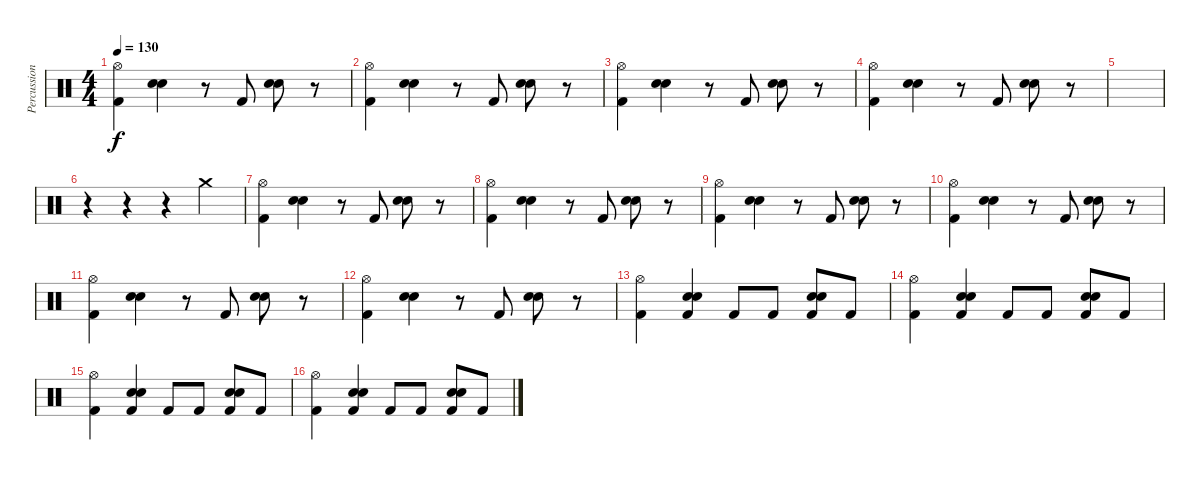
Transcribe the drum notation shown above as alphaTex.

\track ("Percussions" "Percussion") {instrument percussion}
\staff {score}
\articulation defaults
\ts (4 4)
\tempo 130
\clef neutral
\ks c
("Hi-Hat (open)" "Kick (hit) 2").4{dy f} ("Electric Snare (hit)" "Electric Snare (hit)").4 r.8 "Kick (hit) 2".8 ("Electric Snare (hit)" "Electric Snare (hit)").8 r.8 |
("Hi-Hat (open)" "Kick (hit) 2").4 ("Electric Snare (hit)" "Electric Snare (hit)").4 r.8 "Kick (hit) 2".8 ("Electric Snare (hit)" "Electric Snare (hit)").8 r.8 |
("Hi-Hat (open)" "Kick (hit) 2").4 ("Electric Snare (hit)" "Electric Snare (hit)").4 r.8 "Kick (hit) 2".8 ("Electric Snare (hit)" "Electric Snare (hit)").8 r.8 |
("Hi-Hat (open)" "Kick (hit) 2").4 ("Electric Snare (hit)" "Electric Snare (hit)").4 r.8 "Kick (hit) 2".8 ("Electric Snare (hit)" "Electric Snare (hit)").8 r.8 |
|
r.4 r.4 r.4 "Crash medium (hit)".4 |
("Hi-Hat (open)" "Kick (hit) 2").4 ("Electric Snare (hit)" "Electric Snare (hit)").4 r.8 "Kick (hit) 2".8 ("Electric Snare (hit)" "Electric Snare (hit)").8 r.8 |
("Hi-Hat (open)" "Kick (hit) 2").4 ("Electric Snare (hit)" "Electric Snare (hit)").4 r.8 "Kick (hit) 2".8 ("Electric Snare (hit)" "Electric Snare (hit)").8 r.8 |
("Hi-Hat (open)" "Kick (hit) 2").4 ("Electric Snare (hit)" "Electric Snare (hit)").4 r.8 "Kick (hit) 2".8 ("Electric Snare (hit)" "Electric Snare (hit)").8 r.8 |
("Hi-Hat (open)" "Kick (hit) 2").4 ("Electric Snare (hit)" "Electric Snare (hit)").4 r.8 "Kick (hit) 2".8 ("Electric Snare (hit)" "Electric Snare (hit)").8 r.8 |
("Hi-Hat (open)" "Kick (hit) 2").4 ("Electric Snare (hit)" "Electric Snare (hit)").4 r.8 "Kick (hit) 2".8 ("Electric Snare (hit)" "Electric Snare (hit)").8 r.8 |
("Hi-Hat (open)" "Kick (hit) 2").4 ("Electric Snare (hit)" "Electric Snare (hit)").4 r.8 "Kick (hit) 2".8 ("Electric Snare (hit)" "Electric Snare (hit)").8 r.8 |
("Hi-Hat (open)" "Kick (hit) 2").4 ("Electric Snare (hit)" "Electric Snare (hit)" "Kick (hit) 2").4 "Kick (hit) 2".8 "Kick (hit) 2".8 ("Electric Snare (hit)" "Electric Snare (hit)" "Kick (hit) 2").8 "Kick (hit) 2".8 |
("Hi-Hat (open)" "Kick (hit) 2").4 ("Electric Snare (hit)" "Electric Snare (hit)" "Kick (hit) 2").4 "Kick (hit) 2".8 "Kick (hit) 2".8 ("Electric Snare (hit)" "Electric Snare (hit)" "Kick (hit) 2").8 "Kick (hit) 2".8 |
("Hi-Hat (open)" "Kick (hit) 2").4 ("Electric Snare (hit)" "Electric Snare (hit)" "Kick (hit) 2").4 "Kick (hit) 2".8 "Kick (hit) 2".8 ("Electric Snare (hit)" "Electric Snare (hit)" "Kick (hit) 2").8 "Kick (hit) 2".8 |
("Hi-Hat (open)" "Kick (hit) 2").4 ("Electric Snare (hit)" "Electric Snare (hit)" "Kick (hit) 2").4 "Kick (hit) 2".8 "Kick (hit) 2".8 ("Electric Snare (hit)" "Electric Snare (hit)" "Kick (hit) 2").8 "Kick (hit) 2".8
